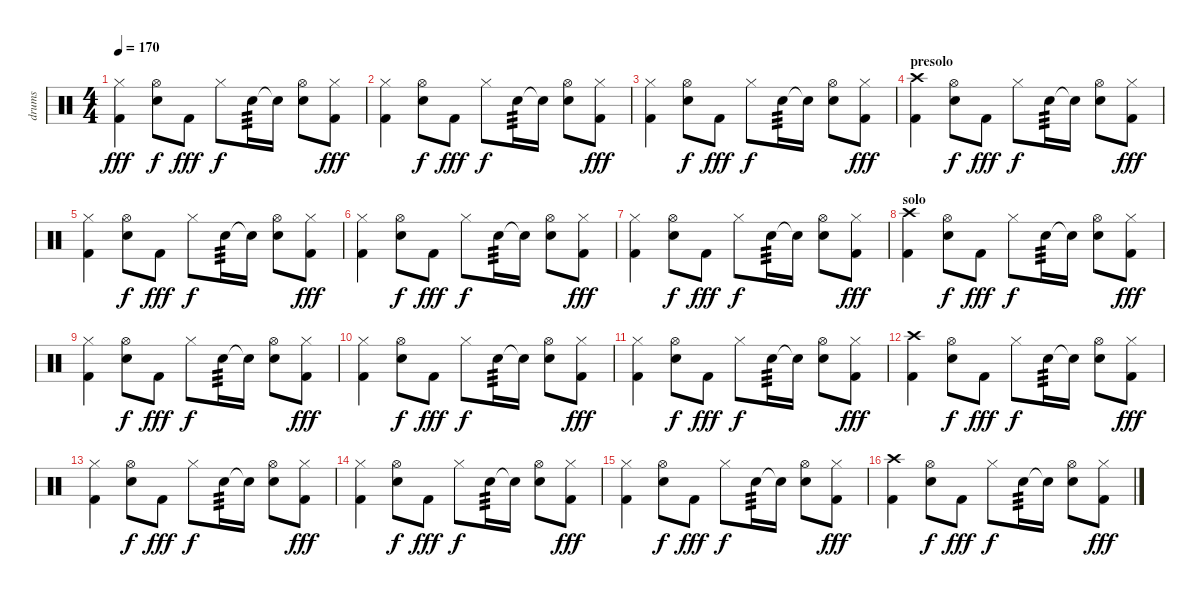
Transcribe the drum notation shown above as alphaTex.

\track ("drums" "drums") {instrument percussion}
\staff {score}
\articulation defaults
\ts (4 4)
\tempo 170
\clef neutral
\ks c
("Hi-Hat (closed)" "Kick (hit) 2").4{dy fff} ("Hi-Hat (open)" "Snare (hit) 2").8{dy f} "Kick (hit) 2".8{dy fff} "Hi-Hat (closed)".8{dy f} "Snare (hit) 2".16{tp 3} "Snare (hit) 2"{t}.16 ("Hi-Hat (open)" "Snare (hit) 2").8 ("Hi-Hat (closed)" "Kick (hit) 2").8{dy fff} |
("Hi-Hat (closed)" "Kick (hit) 2").4 ("Hi-Hat (open)" "Snare (hit) 2").8{dy f} "Kick (hit) 2".8{dy fff} "Hi-Hat (closed)".8{dy f} "Snare (hit) 2".16{tp 3} "Snare (hit) 2"{t}.16 ("Hi-Hat (open)" "Snare (hit) 2").8 ("Hi-Hat (closed)" "Kick (hit) 2").8{dy fff} |
("Hi-Hat (closed)" "Kick (hit) 2").4 ("Hi-Hat (open)" "Snare (hit) 2").8{dy f} "Kick (hit) 2".8{dy fff} "Hi-Hat (closed)".8{dy f} "Snare (hit) 2".16{tp 3} "Snare (hit) 2"{t}.16 ("Hi-Hat (open)" "Snare (hit) 2").8 ("Hi-Hat (closed)" "Kick (hit) 2").8{dy fff} |
\section ("" "presolo")
("Crash high (hit)" "Kick (hit) 2").4 ("Hi-Hat (open)" "Snare (hit) 2").8{dy f} "Kick (hit) 2".8{dy fff} "Hi-Hat (closed)".8{dy f} "Snare (hit) 2".16{tp 3} "Snare (hit) 2"{t}.16 ("Hi-Hat (open)" "Snare (hit) 2").8 ("Hi-Hat (closed)" "Kick (hit) 2").8{dy fff} |
("Hi-Hat (closed)" "Kick (hit) 2").4 ("Hi-Hat (open)" "Snare (hit) 2").8{dy f} "Kick (hit) 2".8{dy fff} "Hi-Hat (closed)".8{dy f} "Snare (hit) 2".16{tp 3} "Snare (hit) 2"{t}.16 ("Hi-Hat (open)" "Snare (hit) 2").8 ("Hi-Hat (closed)" "Kick (hit) 2").8{dy fff} |
("Hi-Hat (closed)" "Kick (hit) 2").4 ("Hi-Hat (open)" "Snare (hit) 2").8{dy f} "Kick (hit) 2".8{dy fff} "Hi-Hat (closed)".8{dy f} "Snare (hit) 2".16{tp 3} "Snare (hit) 2"{t}.16 ("Hi-Hat (open)" "Snare (hit) 2").8 ("Hi-Hat (closed)" "Kick (hit) 2").8{dy fff} |
("Hi-Hat (closed)" "Kick (hit) 2").4 ("Hi-Hat (open)" "Snare (hit) 2").8{dy f} "Kick (hit) 2".8{dy fff} "Hi-Hat (closed)".8{dy f} "Snare (hit) 2".16{tp 3} "Snare (hit) 2"{t}.16 ("Hi-Hat (open)" "Snare (hit) 2").8 ("Hi-Hat (closed)" "Kick (hit) 2").8{dy fff} |
\section ("" "solo")
("Crash high (hit)" "Kick (hit) 2").4 ("Hi-Hat (open)" "Snare (hit) 2").8{dy f} "Kick (hit) 2".8{dy fff} "Hi-Hat (closed)".8{dy f} "Snare (hit) 2".16{tp 3} "Snare (hit) 2"{t}.16 ("Hi-Hat (open)" "Snare (hit) 2").8 ("Hi-Hat (closed)" "Kick (hit) 2").8{dy fff} |
("Hi-Hat (closed)" "Kick (hit) 2").4 ("Hi-Hat (open)" "Snare (hit) 2").8{dy f} "Kick (hit) 2".8{dy fff} "Hi-Hat (closed)".8{dy f} "Snare (hit) 2".16{tp 3} "Snare (hit) 2"{t}.16 ("Hi-Hat (open)" "Snare (hit) 2").8 ("Hi-Hat (closed)" "Kick (hit) 2").8{dy fff} |
("Hi-Hat (closed)" "Kick (hit) 2").4 ("Hi-Hat (open)" "Snare (hit) 2").8{dy f} "Kick (hit) 2".8{dy fff} "Hi-Hat (closed)".8{dy f} "Snare (hit) 2".16{tp 3} "Snare (hit) 2"{t}.16 ("Hi-Hat (open)" "Snare (hit) 2").8 ("Hi-Hat (closed)" "Kick (hit) 2").8{dy fff} |
("Hi-Hat (closed)" "Kick (hit) 2").4 ("Hi-Hat (open)" "Snare (hit) 2").8{dy f} "Kick (hit) 2".8{dy fff} "Hi-Hat (closed)".8{dy f} "Snare (hit) 2".16{tp 3} "Snare (hit) 2"{t}.16 ("Hi-Hat (open)" "Snare (hit) 2").8 ("Hi-Hat (closed)" "Kick (hit) 2").8{dy fff} |
("Crash high (hit)" "Kick (hit) 2").4 ("Hi-Hat (open)" "Snare (hit) 2").8{dy f} "Kick (hit) 2".8{dy fff} "Hi-Hat (closed)".8{dy f} "Snare (hit) 2".16{tp 3} "Snare (hit) 2"{t}.16 ("Hi-Hat (open)" "Snare (hit) 2").8 ("Hi-Hat (closed)" "Kick (hit) 2").8{dy fff} |
("Hi-Hat (closed)" "Kick (hit) 2").4 ("Hi-Hat (open)" "Snare (hit) 2").8{dy f} "Kick (hit) 2".8{dy fff} "Hi-Hat (closed)".8{dy f} "Snare (hit) 2".16{tp 3} "Snare (hit) 2"{t}.16 ("Hi-Hat (open)" "Snare (hit) 2").8 ("Hi-Hat (closed)" "Kick (hit) 2").8{dy fff} |
("Hi-Hat (closed)" "Kick (hit) 2").4 ("Hi-Hat (open)" "Snare (hit) 2").8{dy f} "Kick (hit) 2".8{dy fff} "Hi-Hat (closed)".8{dy f} "Snare (hit) 2".16{tp 3} "Snare (hit) 2"{t}.16 ("Hi-Hat (open)" "Snare (hit) 2").8 ("Hi-Hat (closed)" "Kick (hit) 2").8{dy fff} |
("Hi-Hat (closed)" "Kick (hit) 2").4 ("Hi-Hat (open)" "Snare (hit) 2").8{dy f} "Kick (hit) 2".8{dy fff} "Hi-Hat (closed)".8{dy f} "Snare (hit) 2".16{tp 3} "Snare (hit) 2"{t}.16 ("Hi-Hat (open)" "Snare (hit) 2").8 ("Hi-Hat (closed)" "Kick (hit) 2").8{dy fff} |
("Crash high (hit)" "Kick (hit) 2").4 ("Hi-Hat (open)" "Snare (hit) 2").8{dy f} "Kick (hit) 2".8{dy fff} "Hi-Hat (closed)".8{dy f} "Snare (hit) 2".16{tp 3} "Snare (hit) 2"{t}.16 ("Hi-Hat (open)" "Snare (hit) 2").8 ("Hi-Hat (closed)" "Kick (hit) 2").8{dy fff}
